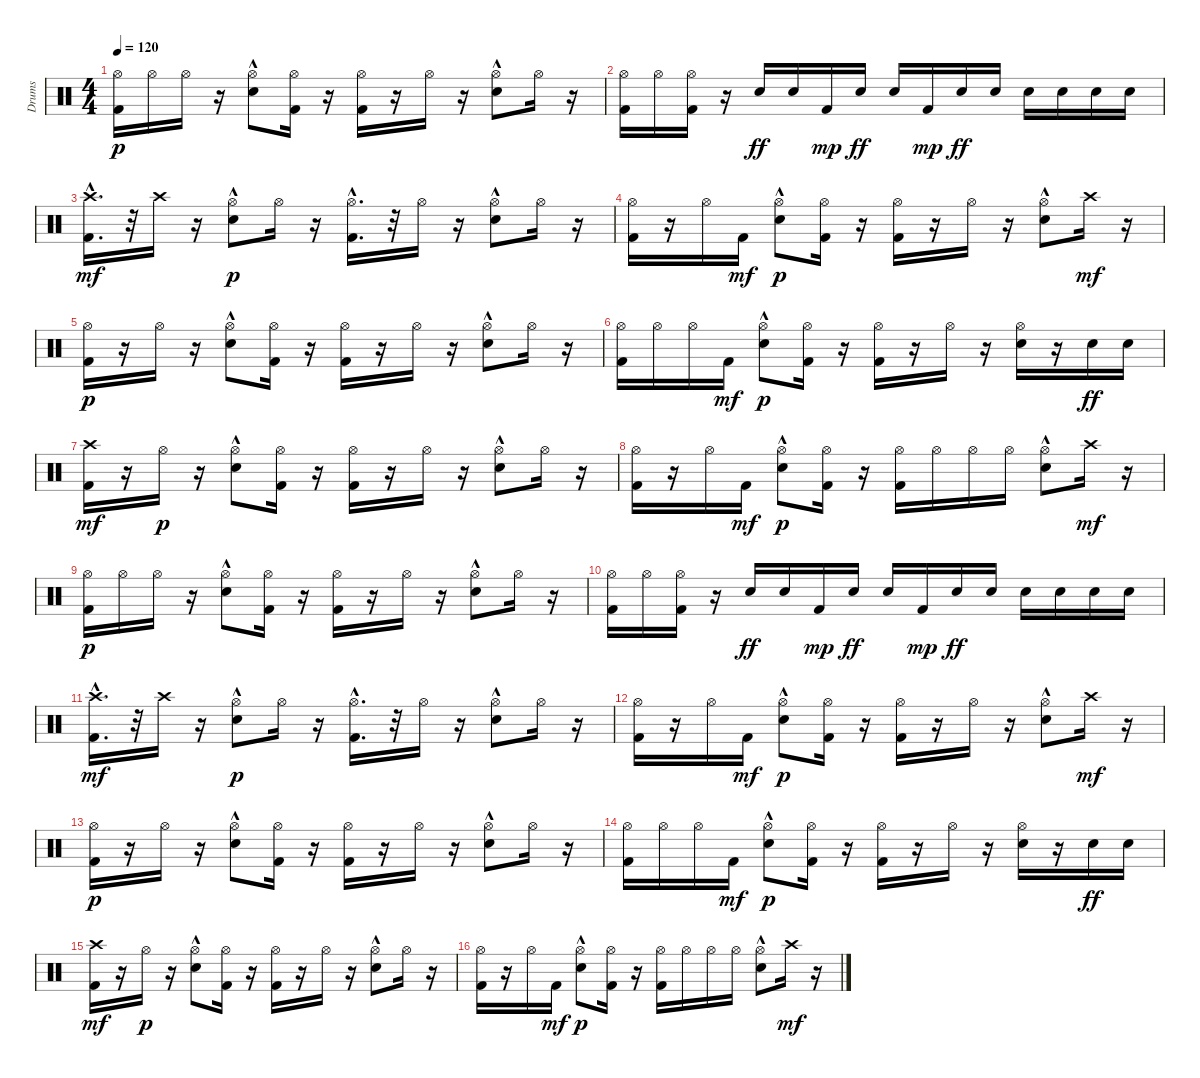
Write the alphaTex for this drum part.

\track ("Drums" "Drums") {instrument percussion}
\staff {score}
\articulation defaults
\ts (4 4)
\tempo 120
\clef neutral
\ks c
("Kick (hit) 2" "Hi-Hat (open)").16{dy p} "Hi-Hat (open)".16 "Hi-Hat (open)".16 r.16 ("Electric Snare (hit)"{hac} "Hi-Hat (open)").8 ("Kick (hit) 2" "Hi-Hat (open)").16 r.16 ("Kick (hit) 2" "Hi-Hat (open)").16 r.16 "Hi-Hat (open)".16 r.16 ("Electric Snare (hit)"{hac} "Hi-Hat (open)").8 "Hi-Hat (open)".16 r.16 |
("Kick (hit) 2" "Hi-Hat (open)").16 "Hi-Hat (open)".16 ("Kick (hit) 2" "Hi-Hat (open)").16 r.16 "Electric Snare (hit)".16{dy ff} "Electric Snare (hit)".16 "Kick (hit) 2".16{dy mp} "Electric Snare (hit)".16{dy ff} "Electric Snare (hit)".16 "Kick (hit) 2".16{dy mp} "Electric Snare (hit)".16{dy ff} "Electric Snare (hit)".16 "Electric Snare (hit)".16 "Electric Snare (hit)".16 "Electric Snare (hit)".16 "Electric Snare (hit)".16 |
("Kick (hit) 2"{hac} "Crash high (hit)").16{d dy mf} r.32 "Crash high (hit)".16 r.16 ("Electric Snare (hit)"{hac} "Hi-Hat (open)").8{dy p} "Hi-Hat (open)".16 r.16 ("Kick (hit) 2"{hac} "Hi-Hat (open)").16{d} r.32 "Hi-Hat (open)".16 r.16 ("Electric Snare (hit)"{hac} "Hi-Hat (open)").8 "Hi-Hat (open)".16 r.16 |
("Kick (hit) 2" "Hi-Hat (open)").16 r.16 "Hi-Hat (open)".16 "Kick (hit) 2".16{dy mf} ("Electric Snare (hit)"{hac} "Hi-Hat (open)").8{dy p} ("Kick (hit) 2" "Hi-Hat (open)").16 r.16 ("Kick (hit) 2" "Hi-Hat (open)").16 r.16 "Hi-Hat (open)".16 r.16 ("Electric Snare (hit)"{hac} "Hi-Hat (open)").8 "Crash high (hit)".16{dy mf} r.16 |
("Kick (hit) 2" "Hi-Hat (open)").16{dy p} r.16 "Hi-Hat (open)".16 r.16 ("Electric Snare (hit)"{hac} "Hi-Hat (open)").8 ("Kick (hit) 2" "Hi-Hat (open)").16 r.16 ("Kick (hit) 2" "Hi-Hat (open)").16 r.16 "Hi-Hat (open)".16 r.16 ("Electric Snare (hit)"{hac} "Hi-Hat (open)").8 "Hi-Hat (open)".16 r.16 |
("Kick (hit) 2" "Hi-Hat (open)").16 "Hi-Hat (open)".16 "Hi-Hat (open)".16 "Kick (hit) 2".16{dy mf} ("Electric Snare (hit)"{hac} "Hi-Hat (open)").8{dy p} ("Kick (hit) 2" "Hi-Hat (open)").16 r.16 ("Kick (hit) 2" "Hi-Hat (open)").16 r.16 "Hi-Hat (open)".16 r.16 ("Electric Snare (hit)" "Hi-Hat (open)").16 r.16 "Electric Snare (hit)".16{dy ff} "Electric Snare (hit)".16 |
("Kick (hit) 2" "Crash high (hit)").16{dy mf} r.16 "Hi-Hat (open)".16{dy p} r.16 ("Electric Snare (hit)"{hac} "Hi-Hat (open)").8 ("Kick (hit) 2" "Hi-Hat (open)").16 r.16 ("Kick (hit) 2" "Hi-Hat (open)").16 r.16 "Hi-Hat (open)".16 r.16 ("Electric Snare (hit)"{hac} "Hi-Hat (open)").8 "Hi-Hat (open)".16 r.16 |
("Kick (hit) 2" "Hi-Hat (open)").16 r.16 "Hi-Hat (open)".16 "Kick (hit) 2".16{dy mf} ("Electric Snare (hit)"{hac} "Hi-Hat (open)").8{dy p} ("Kick (hit) 2" "Hi-Hat (open)").16 r.16 ("Kick (hit) 2" "Hi-Hat (open)").16 "Hi-Hat (open)".16 "Hi-Hat (open)".16 "Hi-Hat (open)".16 ("Electric Snare (hit)"{hac} "Hi-Hat (open)").8 "Crash high (hit)".16{dy mf} r.16 |
("Kick (hit) 2" "Hi-Hat (open)").16{dy p} "Hi-Hat (open)".16 "Hi-Hat (open)".16 r.16 ("Electric Snare (hit)"{hac} "Hi-Hat (open)").8 ("Kick (hit) 2" "Hi-Hat (open)").16 r.16 ("Kick (hit) 2" "Hi-Hat (open)").16 r.16 "Hi-Hat (open)".16 r.16 ("Electric Snare (hit)"{hac} "Hi-Hat (open)").8 "Hi-Hat (open)".16 r.16 |
("Kick (hit) 2" "Hi-Hat (open)").16 "Hi-Hat (open)".16 ("Kick (hit) 2" "Hi-Hat (open)").16 r.16 "Electric Snare (hit)".16{dy ff} "Electric Snare (hit)".16 "Kick (hit) 2".16{dy mp} "Electric Snare (hit)".16{dy ff} "Electric Snare (hit)".16 "Kick (hit) 2".16{dy mp} "Electric Snare (hit)".16{dy ff} "Electric Snare (hit)".16 "Electric Snare (hit)".16 "Electric Snare (hit)".16 "Electric Snare (hit)".16 "Electric Snare (hit)".16 |
("Kick (hit) 2"{hac} "Crash high (hit)").16{d dy mf} r.32 "Crash high (hit)".16 r.16 ("Electric Snare (hit)"{hac} "Hi-Hat (open)").8{dy p} "Hi-Hat (open)".16 r.16 ("Kick (hit) 2"{hac} "Hi-Hat (open)").16{d} r.32 "Hi-Hat (open)".16 r.16 ("Electric Snare (hit)"{hac} "Hi-Hat (open)").8 "Hi-Hat (open)".16 r.16 |
("Kick (hit) 2" "Hi-Hat (open)").16 r.16 "Hi-Hat (open)".16 "Kick (hit) 2".16{dy mf} ("Electric Snare (hit)"{hac} "Hi-Hat (open)").8{dy p} ("Kick (hit) 2" "Hi-Hat (open)").16 r.16 ("Kick (hit) 2" "Hi-Hat (open)").16 r.16 "Hi-Hat (open)".16 r.16 ("Electric Snare (hit)"{hac} "Hi-Hat (open)").8 "Crash high (hit)".16{dy mf} r.16 |
("Kick (hit) 2" "Hi-Hat (open)").16{dy p} r.16 "Hi-Hat (open)".16 r.16 ("Electric Snare (hit)"{hac} "Hi-Hat (open)").8 ("Kick (hit) 2" "Hi-Hat (open)").16 r.16 ("Kick (hit) 2" "Hi-Hat (open)").16 r.16 "Hi-Hat (open)".16 r.16 ("Electric Snare (hit)"{hac} "Hi-Hat (open)").8 "Hi-Hat (open)".16 r.16 |
("Kick (hit) 2" "Hi-Hat (open)").16 "Hi-Hat (open)".16 "Hi-Hat (open)".16 "Kick (hit) 2".16{dy mf} ("Electric Snare (hit)"{hac} "Hi-Hat (open)").8{dy p} ("Kick (hit) 2" "Hi-Hat (open)").16 r.16 ("Kick (hit) 2" "Hi-Hat (open)").16 r.16 "Hi-Hat (open)".16 r.16 ("Electric Snare (hit)" "Hi-Hat (open)").16 r.16 "Electric Snare (hit)".16{dy ff} "Electric Snare (hit)".16 |
("Kick (hit) 2" "Crash high (hit)").16{dy mf} r.16 "Hi-Hat (open)".16{dy p} r.16 ("Electric Snare (hit)"{hac} "Hi-Hat (open)").8 ("Kick (hit) 2" "Hi-Hat (open)").16 r.16 ("Kick (hit) 2" "Hi-Hat (open)").16 r.16 "Hi-Hat (open)".16 r.16 ("Electric Snare (hit)"{hac} "Hi-Hat (open)").8 "Hi-Hat (open)".16 r.16 |
("Kick (hit) 2" "Hi-Hat (open)").16 r.16 "Hi-Hat (open)".16 "Kick (hit) 2".16{dy mf} ("Electric Snare (hit)"{hac} "Hi-Hat (open)").8{dy p} ("Kick (hit) 2" "Hi-Hat (open)").16 r.16 ("Kick (hit) 2" "Hi-Hat (open)").16 "Hi-Hat (open)".16 "Hi-Hat (open)".16 "Hi-Hat (open)".16 ("Electric Snare (hit)"{hac} "Hi-Hat (open)").8 "Crash high (hit)".16{dy mf} r.16
